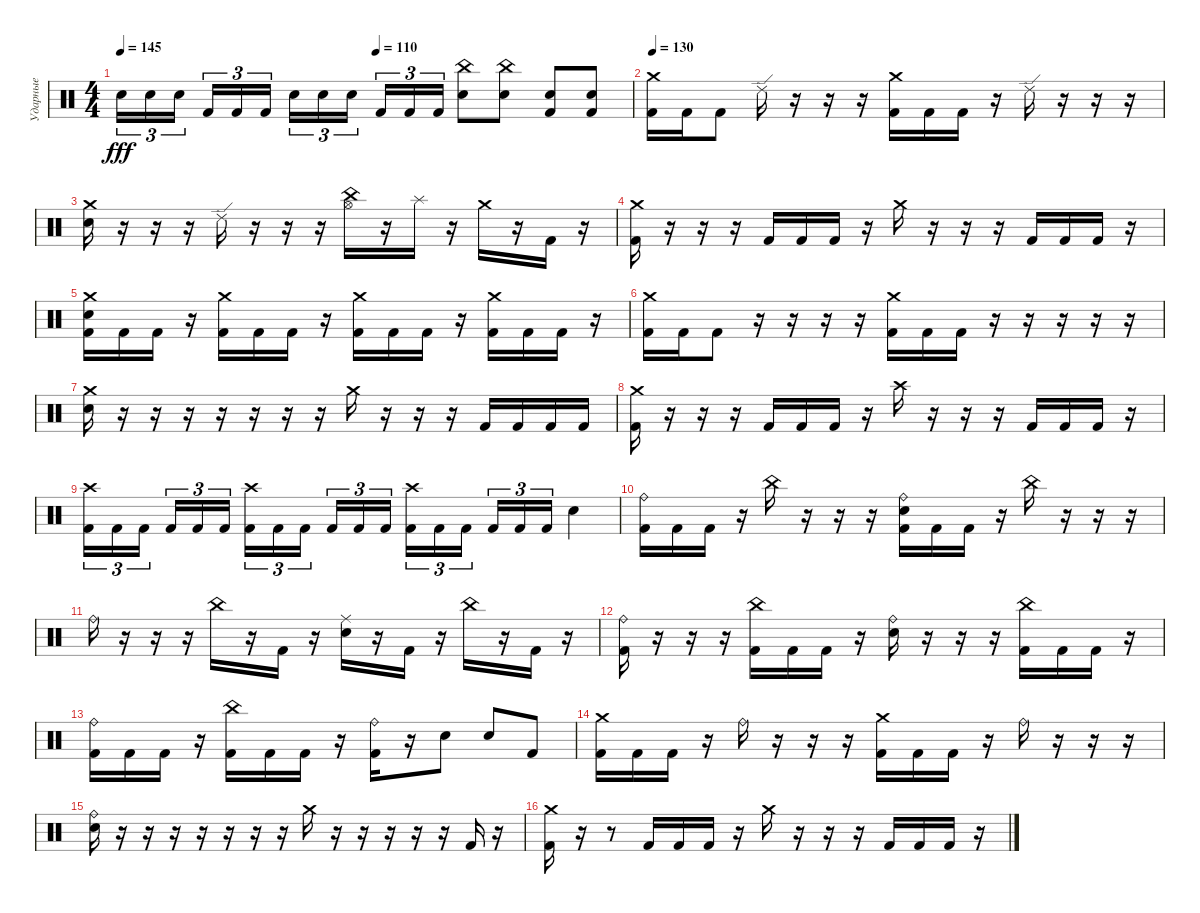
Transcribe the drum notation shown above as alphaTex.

\track ("Ударные" "Ударные") {instrument percussion}
\staff {score}
\articulation defaults
\ts (4 4)
\tempo 145
\tempo (110 0.5)
\clef neutral
\ks c "Electric Snare (hit)".16{tu (3 2) dy fff} "Electric Snare (hit)".16{tu (3 2)} "Electric Snare (hit)".16{tu (3 2) beam splitsecondary} "Kick (hit) 2".16{tu (3 2)} "Kick (hit) 2".16{tu (3 2)} "Kick (hit) 2".16{tu (3 2)} "Electric Snare (hit)".16{tu (3 2)} "Electric Snare (hit)".16{tu (3 2)} "Electric Snare (hit)".16{tu (3 2) beam splitsecondary} "Kick (hit) 2".16{tu (3 2)} "Kick (hit) 2".16{tu (3 2)} "Kick (hit) 2".16{tu (3 2)}
("Electric Snare (hit)" "China (hit)").8 ("Electric Snare (hit)" "China (hit)").8 ("Electric Snare (hit)" "Kick (hit) 2").8 ("Electric Snare (hit)" "Kick (hit) 2").8 |
\tempo 130
("Kick (hit) 2" "Crash medium (hit)").16 "Kick (hit) 2".16 "Kick (hit) 2".8 "Ride (edge) 2".16 r.16 r.16 r.16 ("Kick (hit) 2" "Crash medium (hit)").16 "Kick (hit) 2".16 "Kick (hit) 2".16 r.16 "Ride (edge) 2".16 r.16 r.16 r.16 |
("Electric Snare (hit)" "Crash medium (hit)").16 r.16 r.16 r.16 "Ride (edge) 2".16 r.16 r.16 r.16 ("China (hit)" "Hi-Hat (open)").16 r.16 "Splash (hit)".16 r.16 "Crash medium (hit)".16 r.16 "Kick (hit) 2".16 r.16 |
("Kick (hit) 2" "Crash medium (hit)").16 r.16 r.16 r.16 "Kick (hit) 2".16 "Kick (hit) 2".16 "Kick (hit) 2".16 r.16 "Crash medium (hit)".16 r.16 r.16 r.16 "Kick (hit) 2".16 "Kick (hit) 2".16 "Kick (hit) 2".16 r.16 |
("Crash medium (hit)" "Electric Snare (hit)" "Kick (hit) 2").16 "Kick (hit) 2".16 "Kick (hit) 2".16 r.16 ("Crash medium (hit)" "Kick (hit) 2").16 "Kick (hit) 2".16 "Kick (hit) 2".16 r.16 ("Crash medium (hit)" "Kick (hit) 2").16 "Kick (hit) 2".16 "Kick (hit) 2".16 r.16 ("Crash medium (hit)" "Kick (hit) 2").16 "Kick (hit) 2".16 "Kick (hit) 2".16 r.16 |
("Kick (hit) 2" "Crash medium (hit)").16 "Kick (hit) 2".16 "Kick (hit) 2".8 r.16 r.16 r.16 r.16 ("Kick (hit) 2" "Crash medium (hit)").16 "Kick (hit) 2".16 "Kick (hit) 2".16 r.16 r.16 r.16 r.16 r.16 |
("Electric Snare (hit)" "Crash medium (hit)").16 r.16 r.16 r.16 r.16 r.16 r.16 r.16 "Crash medium (hit)".16 r.16 r.16 r.16 "Kick (hit) 2".16 "Kick (hit) 2".16 "Kick (hit) 2".16 "Kick (hit) 2".16 |
("Kick (hit) 2" "Crash medium (hit)").16 r.16 r.16 r.16 "Kick (hit) 2".16 "Kick (hit) 2".16 "Kick (hit) 2".16 r.16 "Crash high (hit)".16 r.16 r.16 r.16 "Kick (hit) 2".16 "Kick (hit) 2".16 "Kick (hit) 2".16 r.16 |
("Kick (hit) 2" "Crash high (hit)").16{tu (3 2)} "Kick (hit) 2".16{tu (3 2)} "Kick (hit) 2".16{tu (3 2) beam splitsecondary} "Kick (hit) 2".16{tu (3 2)} "Kick (hit) 2".16{tu (3 2)} "Kick (hit) 2".16{tu (3 2)} ("Kick (hit) 2" "Crash high (hit)").16{tu (3 2)} "Kick (hit) 2".16{tu (3 2)} "Kick (hit) 2".16{tu (3 2) beam splitsecondary} "Kick (hit) 2".16{tu (3 2)} "Kick (hit) 2".16{tu (3 2)} "Kick (hit) 2".16{tu (3 2)} ("Kick (hit) 2" "Crash high (hit)").16{tu (3 2)} "Kick (hit) 2".16{tu (3 2)} "Kick (hit) 2".16{tu (3 2) beam splitsecondary} "Kick (hit) 2".16{tu (3 2)} "Kick (hit) 2".16{tu (3 2)} "Kick (hit) 2".16{tu (3 2)} "Electric Snare (hit)".4 |
("Ride (bell)" "Kick (hit) 2").16 "Kick (hit) 2".16 "Kick (hit) 2".16 r.16 "China (hit)".16 r.16 r.16 r.16 ("Electric Snare (hit)" "Ride (bell)" "Kick (hit) 2").16 "Kick (hit) 2".16 "Kick (hit) 2".16 r.16 "China (hit)".16 r.16 r.16 r.16 |
"Ride (bell)".16 r.16 r.16 r.16 "China (hit)".16 r.16 "Kick (hit) 2".16 r.16 ("Electric Snare (hit)" "Ride (middle)").16 r.16 "Kick (hit) 2".16 r.16 "China (hit)".16 r.16 "Kick (hit) 2".16 r.16 |
("Kick (hit) 2" "Ride (bell)").16 r.16 r.16 r.16 ("Kick (hit) 2" "China (hit)").16 "Kick (hit) 2".16 "Kick (hit) 2".16 r.16 ("Ride (bell)" "Electric Snare (hit)").16 r.16 r.16 r.16 ("China (hit)" "Kick (hit) 2").16 "Kick (hit) 2".16 "Kick (hit) 2".16 r.16 |
("Ride (bell)" "Kick (hit) 2").16 "Kick (hit) 2".16 "Kick (hit) 2".16 r.16 ("China (hit)" "Kick (hit) 2").16 "Kick (hit) 2".16 "Kick (hit) 2".16 r.16 ("Ride (bell)" "Kick (hit) 2").16 r.16 "Electric Snare (hit)".8 "Electric Snare (hit)".8 "Kick (hit) 2".8 |
("Kick (hit) 2" "Crash medium (hit)").16 "Kick (hit) 2".16 "Kick (hit) 2".16 r.16 "Ride (bell)".16 r.16 r.16 r.16 ("Kick (hit) 2" "Crash medium (hit)").16 "Kick (hit) 2".16 "Kick (hit) 2".16 r.16 "Ride (bell)".16 r.16 r.16 r.16 |
("Electric Snare (hit)" "Ride (bell)").16 r.16 r.16 r.16 r.16 r.16 r.16 r.16 "Crash medium (hit)".16 r.16 r.16 r.16 r.16 r.16 "Kick (hit) 2".16 r.16 |
("Kick (hit) 2" "Crash medium (hit)").16 r.16 r.8 "Kick (hit) 2".16 "Kick (hit) 2".16 "Kick (hit) 2".16 r.16 "Crash medium (hit)".16 r.16 r.16 r.16 "Kick (hit) 2".16 "Kick (hit) 2".16 "Kick (hit) 2".16 r.16
